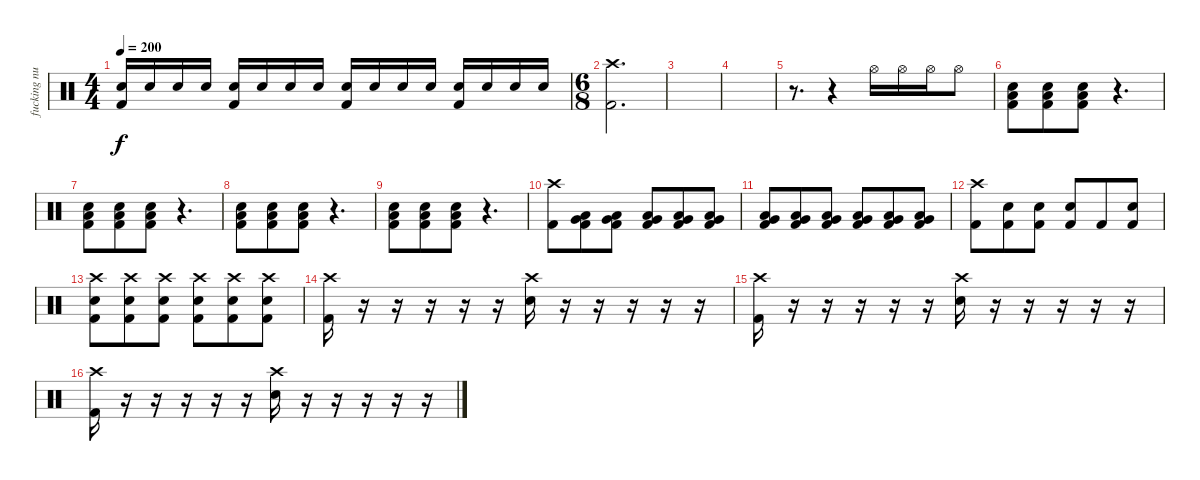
\track ("fucking nuts." "fucking nu") {instrument percussion}
\staff {score}
\articulation defaults
\ts (4 4)
\tempo 200
\clef neutral
\ks c
("Electric Snare (hit)" "Kick (hit) 2").16{dy f} "Electric Snare (hit)".16 "Electric Snare (hit)".16 "Electric Snare (hit)".16 ("Electric Snare (hit)" "Kick (hit) 2").16 "Electric Snare (hit)".16 "Electric Snare (hit)".16 "Electric Snare (hit)".16 ("Electric Snare (hit)" "Kick (hit) 2").16 "Electric Snare (hit)".16 "Electric Snare (hit)".16 "Electric Snare (hit)".16 ("Electric Snare (hit)" "Kick (hit) 2").16 "Electric Snare (hit)".16 "Electric Snare (hit)".16 "Electric Snare (hit)".16 |
\ts (6 8)
("Crash high (hit)" "Kick (hit) 2").2{d} |
|
|
r.8{d volume 7} r.4 "Hi-Hat (open)".16{volume 16} "Hi-Hat (open)".16 "Hi-Hat (open)".16 "Hi-Hat (open)".8 |
("Low Tom (hit)" "Electric Snare (hit)" "Kick (hit) 2").8 ("Low Tom (hit)" "Electric Snare (hit)" "Kick (hit) 2").8 ("Low Tom (hit)" "Electric Snare (hit)" "Kick (hit) 2").8 r.4{d} |
("Low Tom (hit)" "Electric Snare (hit)" "Kick (hit) 2").8 ("Low Tom (hit)" "Electric Snare (hit)" "Kick (hit) 2").8 ("Low Tom (hit)" "Electric Snare (hit)" "Kick (hit) 2").8 r.4{d} |
("Low Tom (hit)" "Electric Snare (hit)" "Kick (hit) 2").8 ("Low Tom (hit)" "Electric Snare (hit)" "Kick (hit) 2").8 ("Low Tom (hit)" "Electric Snare (hit)" "Kick (hit) 2").8 r.4{d} |
("Low Tom (hit)" "Electric Snare (hit)" "Kick (hit) 2").8 ("Low Tom (hit)" "Electric Snare (hit)" "Kick (hit) 2").8 ("Low Tom (hit)" "Electric Snare (hit)" "Kick (hit) 2").8 r.4{d} |
("Crash high (hit)" "Kick (hit) 2").8 ("Low Tom (hit)" "Very Low Tom (hit)" "Kick (hit) 2").8 ("Low Tom (hit)" "Very Low Tom (hit)" "Kick (hit) 2").8 ("Low Tom (hit)" "Very Low Tom (hit)" "Kick (hit) 2").8 ("Low Tom (hit)" "Very Low Tom (hit)" "Kick (hit) 2").8 ("Low Tom (hit)" "Very Low Tom (hit)" "Kick (hit) 2").8 |
("Low Tom (hit)" "Very Low Tom (hit)" "Kick (hit) 2").8 ("Low Tom (hit)" "Very Low Tom (hit)" "Kick (hit) 2").8 ("Low Tom (hit)" "Very Low Tom (hit)" "Kick (hit) 2").8 ("Low Tom (hit)" "Very Low Tom (hit)" "Kick (hit) 2").8 ("Low Tom (hit)" "Very Low Tom (hit)" "Kick (hit) 2").8 ("Low Tom (hit)" "Very Low Tom (hit)" "Kick (hit) 2").8 |
("Crash high (hit)" "Kick (hit) 2").8 ("Electric Snare (hit)" "Kick (hit) 2").8 ("Electric Snare (hit)" "Kick (hit) 2").8 ("Electric Snare (hit)" "Kick (hit) 2").8 "Kick (hit) 2".8 ("Electric Snare (hit)" "Kick (hit) 2").8 |
("Crash high (hit)" "Electric Snare (hit)" "Kick (hit) 2").8 ("Crash high (hit)" "Electric Snare (hit)" "Kick (hit) 2").8 ("Crash high (hit)" "Electric Snare (hit)" "Kick (hit) 2").8 ("Crash high (hit)" "Electric Snare (hit)" "Kick (hit) 2").8 ("Crash high (hit)" "Electric Snare (hit)" "Kick (hit) 2").8 ("Crash high (hit)" "Electric Snare (hit)" "Kick (hit) 2").8 |
("Crash high (hit)" "Kick (hit) 2").16 r.16 r.16 r.16 r.16 r.16 ("Crash high (hit)" "Electric Snare (hit)").16 r.16 r.16 r.16 r.16 r.16 |
("Crash high (hit)" "Kick (hit) 2").16 r.16 r.16 r.16 r.16 r.16 ("Crash high (hit)" "Electric Snare (hit)").16 r.16 r.16 r.16 r.16 r.16 |
("Crash high (hit)" "Kick (hit) 2").16 r.16 r.16 r.16 r.16 r.16 ("Crash high (hit)" "Electric Snare (hit)").16 r.16 r.16 r.16 r.16 r.16
